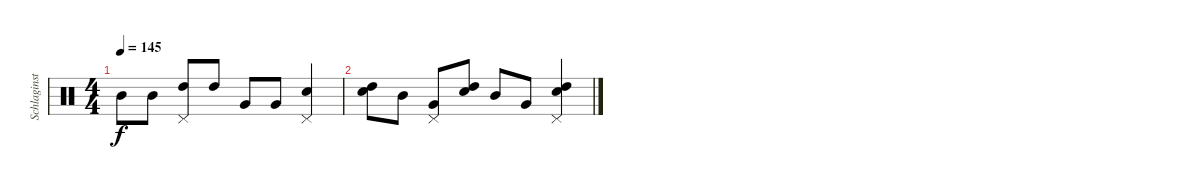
\track ("Schlaginstrumente - Auswahl" "Schlaginst") {instrument percussion}
\staff {score}
\articulation defaults
\ts (4 4)
\tempo 145
\clef neutral
\ks c "Mid Tom (hit)".8{dy f} "Mid Tom (hit)".8
("Pedal Hi-Hat (hit)" "High Tom (hit)").8 "High Tom (hit)".8 "Very Low Tom (hit)".8 "Very Low Tom (hit)".8 ("Pedal Hi-Hat (hit)" "Electric Snare (hit)").4 |
("High Tom (hit)" "Electric Snare (hit)").8 "Mid Tom (hit)".8 ("Pedal Hi-Hat (hit)" "Very Low Tom (hit)").8 ("High Tom (hit)" "Electric Snare (hit)").8 "Mid Tom (hit)".8 "Very Low Tom (hit)".8 ("Pedal Hi-Hat (hit)" "High Tom (hit)" "Electric Snare (hit)").4
